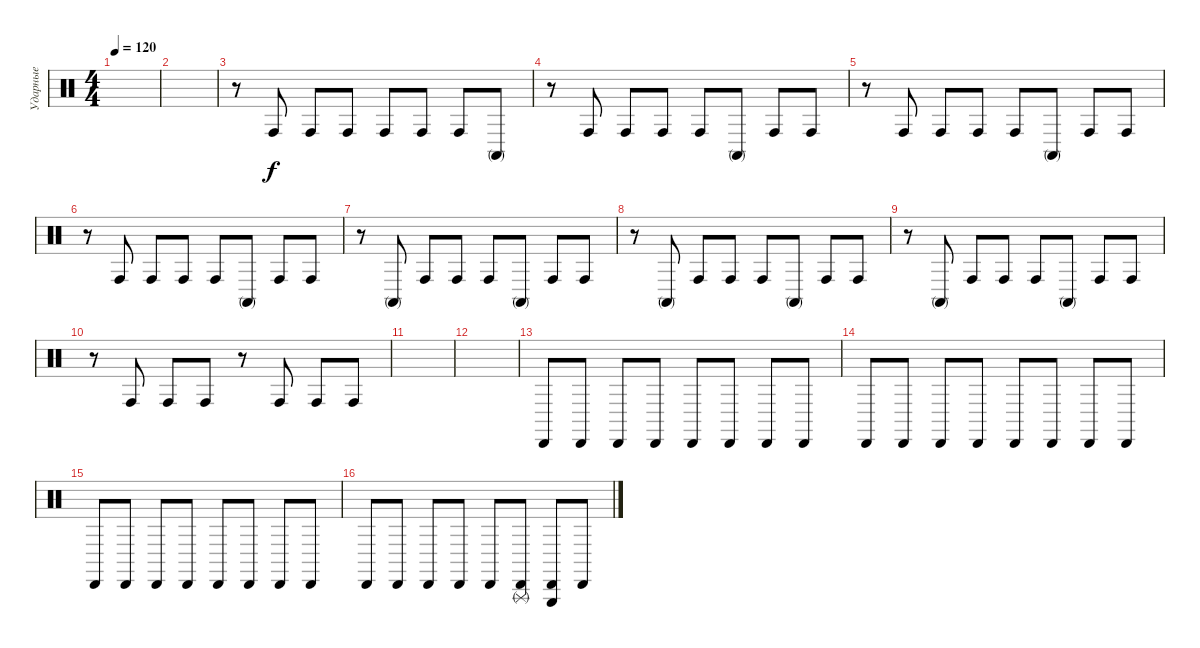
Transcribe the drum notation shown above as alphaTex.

\track ("Ударные" "Ударные") {instrument percussion}
\staff {score}
\articulation defaults
\ts (4 4)
\tempo 120
\clef neutral
\ks c
|
|
r.8 "Conga high (hit)".8 "Conga high (hit)".8 "Conga high (hit)".8 "Conga high (hit)".8 "Conga high (hit)".8 "Conga high (hit)".8 "Conga high (mute)".8 |
r.8 "Conga high (hit)".8 "Conga high (hit)".8 "Conga high (hit)".8 "Conga high (hit)".8 "Conga high (mute)".8 "Conga high (hit)".8 "Conga high (hit)".8 |
r.8 "Conga high (hit)".8 "Conga high (hit)".8 "Conga high (hit)".8 "Conga high (hit)".8 "Conga high (mute)".8 "Conga high (hit)".8 "Conga high (hit)".8 |
r.8 "Conga high (hit)".8 "Conga high (hit)".8 "Conga high (hit)".8 "Conga high (hit)".8 "Conga high (mute)".8 "Conga high (hit)".8 "Conga high (hit)".8 |
r.8 "Conga high (mute)".8 "Conga high (hit)".8 "Conga high (hit)".8 "Conga high (hit)".8 "Conga high (mute)".8 "Conga high (hit)".8 "Conga high (hit)".8 |
r.8 "Conga high (mute)".8 "Conga high (hit)".8 "Conga high (hit)".8 "Conga high (hit)".8 "Conga high (mute)".8 "Conga high (hit)".8 "Conga high (hit)".8 |
r.8 "Conga high (mute)".8 "Conga high (hit)".8 "Conga high (hit)".8 "Conga high (hit)".8 "Conga high (mute)".8 "Conga high (hit)".8 "Conga high (hit)".8 |
r.8 "Conga high (hit)".8 "Conga high (hit)".8 "Conga high (hit)".8 r.8 "Conga high (hit)".8 "Conga high (hit)".8 "Conga high (hit)".8 |
|
|
"Cabasa (hit)".8 "Cabasa (hit)".8 "Cabasa (hit)".8 "Cabasa (hit)".8 "Cabasa (hit)".8 "Cabasa (hit)".8 "Cabasa (hit)".8 "Cabasa (hit)".8 |
"Cabasa (hit)".8 "Cabasa (hit)".8 "Cabasa (hit)".8 "Cabasa (hit)".8 "Cabasa (hit)".8 "Cabasa (hit)".8 "Cabasa (hit)".8 "Cabasa (hit)".8 |
"Cabasa (hit)".8 "Cabasa (hit)".8 "Cabasa (hit)".8 "Cabasa (hit)".8 "Cabasa (hit)".8 "Cabasa (hit)".8 "Cabasa (hit)".8 "Cabasa (hit)".8 |
"Cabasa (hit)".8 "Cabasa (hit)".8 "Cabasa (hit)".8 "Cabasa (hit)".8 "Cabasa (hit)".8 ("Cabasa (hit)" "Triangle (rnute)").8 ("Cabasa (hit)" "Triangle (hit)").8 "Cabasa (hit)".8
